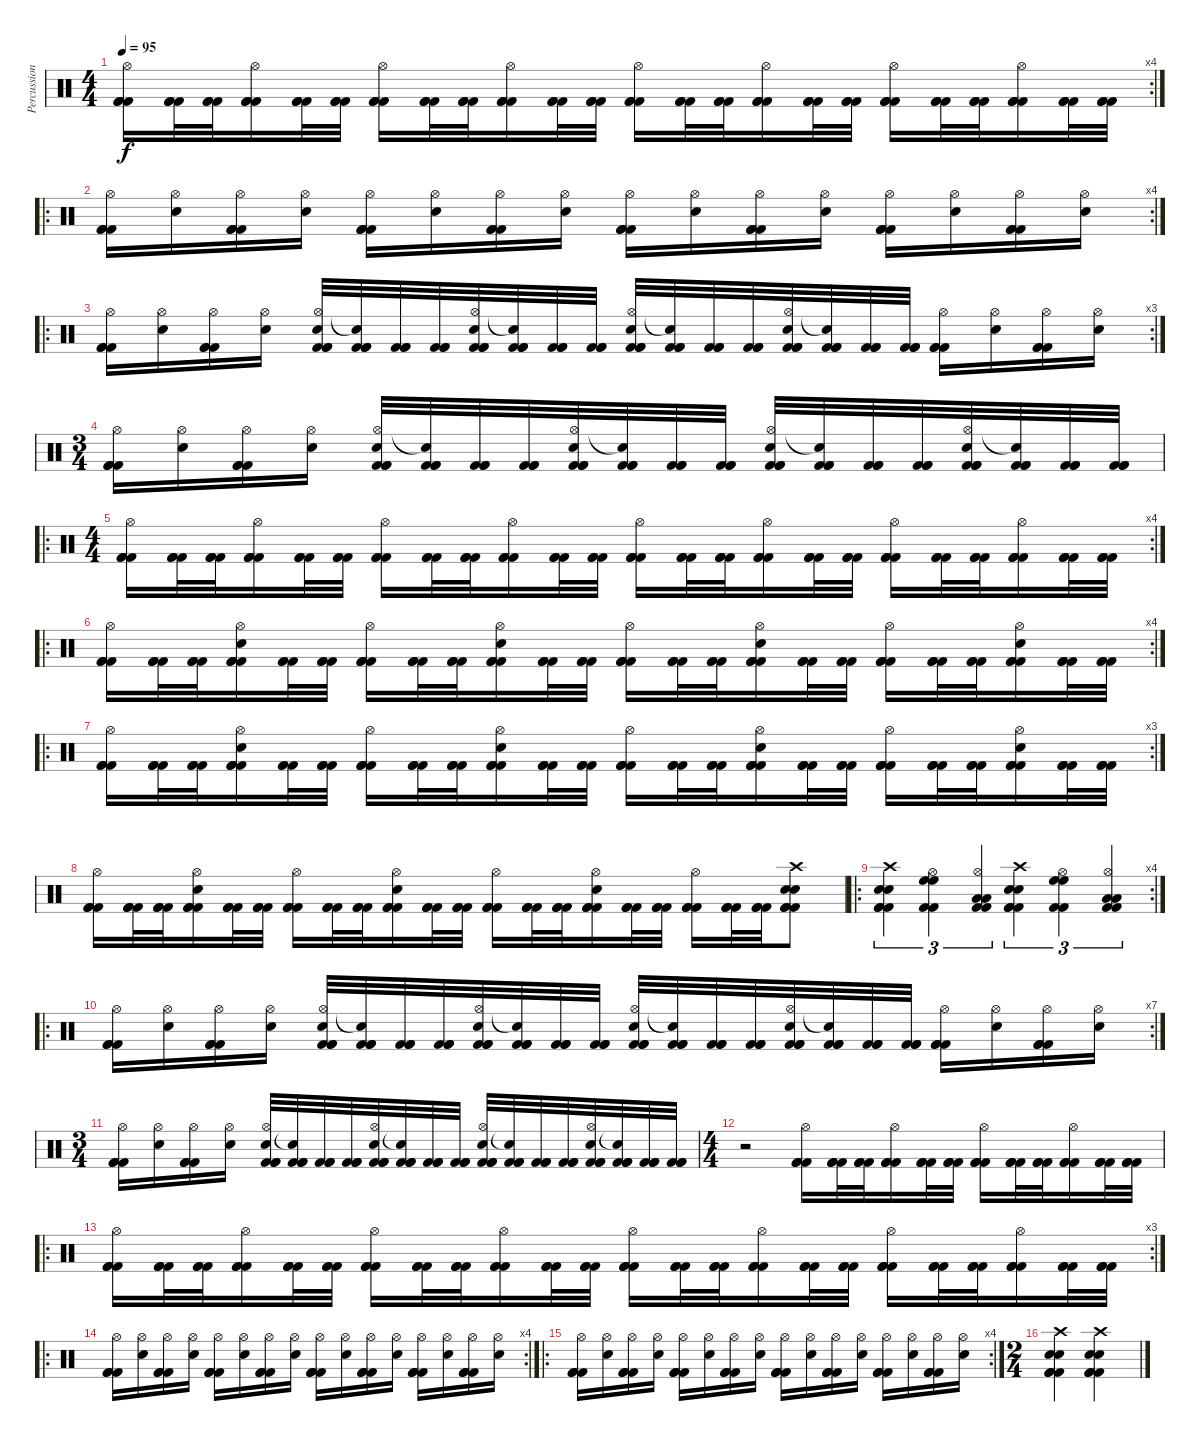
\track ("Percussion" "Percussion") {instrument percussion}
\staff {score}
\articulation defaults
\rc 4
\ts (4 4)
\tempo 95
\clef neutral
\ks c
("Kick (hit) 2" "Kick (hit) 2" "Kick (hit) 2" "Hi-Hat (open)").16{dy f} ("Kick (hit) 2" "Kick (hit) 2" "Kick (hit) 2").32 ("Kick (hit) 2" "Kick (hit) 2" "Kick (hit) 2").32 ("Kick (hit) 2" "Kick (hit) 2" "Kick (hit) 2" "Hi-Hat (open)").16 ("Kick (hit) 2" "Kick (hit) 2" "Kick (hit) 2").32 ("Kick (hit) 2" "Kick (hit) 2" "Kick (hit) 2").32 ("Kick (hit) 2" "Kick (hit) 2" "Kick (hit) 2" "Hi-Hat (open)").16 ("Kick (hit) 2" "Kick (hit) 2" "Kick (hit) 2").32 ("Kick (hit) 2" "Kick (hit) 2" "Kick (hit) 2").32 ("Kick (hit) 2" "Kick (hit) 2" "Kick (hit) 2" "Hi-Hat (open)").16 ("Kick (hit) 2" "Kick (hit) 2" "Kick (hit) 2").32 ("Kick (hit) 2" "Kick (hit) 2" "Kick (hit) 2").32 ("Kick (hit) 2" "Kick (hit) 2" "Kick (hit) 2" "Hi-Hat (open)").16 ("Kick (hit) 2" "Kick (hit) 2" "Kick (hit) 2").32 ("Kick (hit) 2" "Kick (hit) 2" "Kick (hit) 2").32 ("Kick (hit) 2" "Kick (hit) 2" "Kick (hit) 2" "Hi-Hat (open)").16 ("Kick (hit) 2" "Kick (hit) 2" "Kick (hit) 2").32 ("Kick (hit) 2" "Kick (hit) 2" "Kick (hit) 2").32 ("Kick (hit) 2" "Kick (hit) 2" "Kick (hit) 2" "Hi-Hat (open)").16 ("Kick (hit) 2" "Kick (hit) 2" "Kick (hit) 2").32 ("Kick (hit) 2" "Kick (hit) 2" "Kick (hit) 2").32 ("Kick (hit) 2" "Kick (hit) 2" "Kick (hit) 2" "Hi-Hat (open)").16 ("Kick (hit) 2" "Kick (hit) 2" "Kick (hit) 2").32 ("Kick (hit) 2" "Kick (hit) 2" "Kick (hit) 2").32 |
\ro
\rc 4
("Hi-Hat (open)" "Kick (hit) 2" "Kick (hit) 2" "Kick (hit) 2").16 ("Hi-Hat (open)" "Snare (hit) 2").16 ("Hi-Hat (open)" "Kick (hit) 2" "Kick (hit) 2" "Kick (hit) 2").16 ("Hi-Hat (open)" "Snare (hit) 2").16 ("Hi-Hat (open)" "Kick (hit) 2" "Kick (hit) 2" "Kick (hit) 2").16 ("Hi-Hat (open)" "Snare (hit) 2").16 ("Hi-Hat (open)" "Kick (hit) 2" "Kick (hit) 2" "Kick (hit) 2").16 ("Hi-Hat (open)" "Snare (hit) 2").16 ("Hi-Hat (open)" "Kick (hit) 2" "Kick (hit) 2" "Kick (hit) 2").16 ("Hi-Hat (open)" "Snare (hit) 2").16 ("Hi-Hat (open)" "Kick (hit) 2" "Kick (hit) 2" "Kick (hit) 2").16 ("Hi-Hat (open)" "Snare (hit) 2").16 ("Hi-Hat (open)" "Kick (hit) 2" "Kick (hit) 2" "Kick (hit) 2").16 ("Hi-Hat (open)" "Snare (hit) 2").16 ("Hi-Hat (open)" "Kick (hit) 2" "Kick (hit) 2" "Kick (hit) 2").16 ("Hi-Hat (open)" "Snare (hit) 2").16 |
\ro
\rc 3
("Hi-Hat (open)" "Kick (hit) 2" "Kick (hit) 2" "Kick (hit) 2").16 ("Hi-Hat (open)" "Snare (hit) 2").16 ("Hi-Hat (open)" "Kick (hit) 2" "Kick (hit) 2" "Kick (hit) 2").16 ("Hi-Hat (open)" "Snare (hit) 2").16 ("Kick (hit) 2" "Kick (hit) 2" "Kick (hit) 2" "Hi-Hat (open)" "Snare (hit) 2").32 ("Kick (hit) 2" "Kick (hit) 2" "Kick (hit) 2" "Snare (hit)"{t}).32 ("Kick (hit) 2" "Kick (hit) 2" "Kick (hit) 2").32 ("Kick (hit) 2" "Kick (hit) 2" "Kick (hit) 2").32 ("Kick (hit) 2" "Kick (hit) 2" "Kick (hit) 2" "Hi-Hat (open)" "Snare (hit) 2").32 ("Kick (hit) 2" "Kick (hit) 2" "Kick (hit) 2" "Snare (hit)"{t}).32 ("Kick (hit) 2" "Kick (hit) 2" "Kick (hit) 2").32 ("Kick (hit) 2" "Kick (hit) 2" "Kick (hit) 2").32 ("Kick (hit) 2" "Kick (hit) 2" "Kick (hit) 2" "Hi-Hat (open)" "Snare (hit) 2").32 ("Kick (hit) 2" "Kick (hit) 2" "Kick (hit) 2" "Snare (hit)"{t}).32 ("Kick (hit) 2" "Kick (hit) 2" "Kick (hit) 2").32 ("Kick (hit) 2" "Kick (hit) 2" "Kick (hit) 2").32 ("Kick (hit) 2" "Kick (hit) 2" "Kick (hit) 2" "Hi-Hat (open)" "Snare (hit) 2").32 ("Kick (hit) 2" "Kick (hit) 2" "Kick (hit) 2" "Snare (hit)"{t}).32 ("Kick (hit) 2" "Kick (hit) 2" "Kick (hit) 2").32 ("Kick (hit) 2" "Kick (hit) 2" "Kick (hit) 2").32 ("Hi-Hat (open)" "Kick (hit) 2" "Kick (hit) 2" "Kick (hit) 2").16 ("Hi-Hat (open)" "Snare (hit) 2").16 ("Hi-Hat (open)" "Kick (hit) 2" "Kick (hit) 2" "Kick (hit) 2").16 ("Hi-Hat (open)" "Snare (hit) 2").16 |
\ts (3 4)
("Hi-Hat (open)" "Kick (hit) 2" "Kick (hit) 2" "Kick (hit) 2").16 ("Hi-Hat (open)" "Snare (hit) 2").16 ("Hi-Hat (open)" "Kick (hit) 2" "Kick (hit) 2" "Kick (hit) 2").16 ("Hi-Hat (open)" "Snare (hit) 2").16 ("Kick (hit) 2" "Kick (hit) 2" "Kick (hit) 2" "Hi-Hat (open)" "Snare (hit) 2").32 ("Kick (hit) 2" "Kick (hit) 2" "Kick (hit) 2" "Snare (hit)"{t}).32 ("Kick (hit) 2" "Kick (hit) 2" "Kick (hit) 2").32 ("Kick (hit) 2" "Kick (hit) 2" "Kick (hit) 2").32 ("Kick (hit) 2" "Kick (hit) 2" "Kick (hit) 2" "Hi-Hat (open)" "Snare (hit) 2").32 ("Kick (hit) 2" "Kick (hit) 2" "Kick (hit) 2" "Snare (hit)"{t}).32 ("Kick (hit) 2" "Kick (hit) 2" "Kick (hit) 2").32 ("Kick (hit) 2" "Kick (hit) 2" "Kick (hit) 2").32 ("Kick (hit) 2" "Kick (hit) 2" "Kick (hit) 2" "Hi-Hat (open)" "Snare (hit) 2").32 ("Kick (hit) 2" "Kick (hit) 2" "Kick (hit) 2" "Snare (hit)"{t}).32 ("Kick (hit) 2" "Kick (hit) 2" "Kick (hit) 2").32 ("Kick (hit) 2" "Kick (hit) 2" "Kick (hit) 2").32 ("Kick (hit) 2" "Kick (hit) 2" "Kick (hit) 2" "Hi-Hat (open)" "Snare (hit) 2").32 ("Kick (hit) 2" "Kick (hit) 2" "Kick (hit) 2" "Snare (hit)"{t}).32 ("Kick (hit) 2" "Kick (hit) 2" "Kick (hit) 2").32 ("Kick (hit) 2" "Kick (hit) 2" "Kick (hit) 2").32 |
\ro
\rc 4
\ts (4 4)
("Kick (hit) 2" "Kick (hit) 2" "Kick (hit) 2" "Hi-Hat (open)").16 ("Kick (hit) 2" "Kick (hit) 2" "Kick (hit) 2").32 ("Kick (hit) 2" "Kick (hit) 2" "Kick (hit) 2").32 ("Kick (hit) 2" "Kick (hit) 2" "Kick (hit) 2" "Hi-Hat (open)").16 ("Kick (hit) 2" "Kick (hit) 2" "Kick (hit) 2").32 ("Kick (hit) 2" "Kick (hit) 2" "Kick (hit) 2").32 ("Kick (hit) 2" "Kick (hit) 2" "Kick (hit) 2" "Hi-Hat (open)").16 ("Kick (hit) 2" "Kick (hit) 2" "Kick (hit) 2").32 ("Kick (hit) 2" "Kick (hit) 2" "Kick (hit) 2").32 ("Kick (hit) 2" "Kick (hit) 2" "Kick (hit) 2" "Hi-Hat (open)").16 ("Kick (hit) 2" "Kick (hit) 2" "Kick (hit) 2").32 ("Kick (hit) 2" "Kick (hit) 2" "Kick (hit) 2").32 ("Kick (hit) 2" "Kick (hit) 2" "Kick (hit) 2" "Hi-Hat (open)").16 ("Kick (hit) 2" "Kick (hit) 2" "Kick (hit) 2").32 ("Kick (hit) 2" "Kick (hit) 2" "Kick (hit) 2").32 ("Kick (hit) 2" "Kick (hit) 2" "Kick (hit) 2" "Hi-Hat (open)").16 ("Kick (hit) 2" "Kick (hit) 2" "Kick (hit) 2").32 ("Kick (hit) 2" "Kick (hit) 2" "Kick (hit) 2").32 ("Kick (hit) 2" "Kick (hit) 2" "Kick (hit) 2" "Hi-Hat (open)").16 ("Kick (hit) 2" "Kick (hit) 2" "Kick (hit) 2").32 ("Kick (hit) 2" "Kick (hit) 2" "Kick (hit) 2").32 ("Kick (hit) 2" "Kick (hit) 2" "Kick (hit) 2" "Hi-Hat (open)").16 ("Kick (hit) 2" "Kick (hit) 2" "Kick (hit) 2").32 ("Kick (hit) 2" "Kick (hit) 2" "Kick (hit) 2").32 |
\ro
\rc 4
("Kick (hit) 2" "Kick (hit) 2" "Kick (hit) 2" "Hi-Hat (open)").16 ("Kick (hit) 2" "Kick (hit) 2" "Kick (hit) 2").32 ("Kick (hit) 2" "Kick (hit) 2" "Kick (hit) 2").32 ("Kick (hit) 2" "Kick (hit) 2" "Kick (hit) 2" "Hi-Hat (open)" "Snare (hit) 2").16 ("Kick (hit) 2" "Kick (hit) 2" "Kick (hit) 2").32 ("Kick (hit) 2" "Kick (hit) 2" "Kick (hit) 2").32 ("Kick (hit) 2" "Kick (hit) 2" "Kick (hit) 2" "Hi-Hat (open)").16 ("Kick (hit) 2" "Kick (hit) 2" "Kick (hit) 2").32 ("Kick (hit) 2" "Kick (hit) 2" "Kick (hit) 2").32 ("Kick (hit) 2" "Kick (hit) 2" "Kick (hit) 2" "Hi-Hat (open)" "Snare (hit) 2").16 ("Kick (hit) 2" "Kick (hit) 2" "Kick (hit) 2").32 ("Kick (hit) 2" "Kick (hit) 2" "Kick (hit) 2").32 ("Kick (hit) 2" "Kick (hit) 2" "Kick (hit) 2" "Hi-Hat (open)").16 ("Kick (hit) 2" "Kick (hit) 2" "Kick (hit) 2").32 ("Kick (hit) 2" "Kick (hit) 2" "Kick (hit) 2").32 ("Kick (hit) 2" "Kick (hit) 2" "Kick (hit) 2" "Hi-Hat (open)" "Snare (hit) 2").16 ("Kick (hit) 2" "Kick (hit) 2" "Kick (hit) 2").32 ("Kick (hit) 2" "Kick (hit) 2" "Kick (hit) 2").32 ("Kick (hit) 2" "Kick (hit) 2" "Kick (hit) 2" "Hi-Hat (open)").16 ("Kick (hit) 2" "Kick (hit) 2" "Kick (hit) 2").32 ("Kick (hit) 2" "Kick (hit) 2" "Kick (hit) 2").32 ("Kick (hit) 2" "Kick (hit) 2" "Kick (hit) 2" "Hi-Hat (open)" "Snare (hit) 2").16 ("Kick (hit) 2" "Kick (hit) 2" "Kick (hit) 2").32 ("Kick (hit) 2" "Kick (hit) 2" "Kick (hit) 2").32 |
\ro
\rc 3
("Kick (hit) 2" "Kick (hit) 2" "Kick (hit) 2" "Hi-Hat (open)").16 ("Kick (hit) 2" "Kick (hit) 2" "Kick (hit) 2").32 ("Kick (hit) 2" "Kick (hit) 2" "Kick (hit) 2").32 ("Kick (hit) 2" "Kick (hit) 2" "Kick (hit) 2" "Hi-Hat (open)" "Snare (hit) 2").16 ("Kick (hit) 2" "Kick (hit) 2" "Kick (hit) 2").32 ("Kick (hit) 2" "Kick (hit) 2" "Kick (hit) 2").32 ("Kick (hit) 2" "Kick (hit) 2" "Kick (hit) 2" "Hi-Hat (open)").16 ("Kick (hit) 2" "Kick (hit) 2" "Kick (hit) 2").32 ("Kick (hit) 2" "Kick (hit) 2" "Kick (hit) 2").32 ("Kick (hit) 2" "Kick (hit) 2" "Kick (hit) 2" "Hi-Hat (open)" "Snare (hit) 2").16 ("Kick (hit) 2" "Kick (hit) 2" "Kick (hit) 2").32 ("Kick (hit) 2" "Kick (hit) 2" "Kick (hit) 2").32 ("Kick (hit) 2" "Kick (hit) 2" "Kick (hit) 2" "Hi-Hat (open)").16 ("Kick (hit) 2" "Kick (hit) 2" "Kick (hit) 2").32 ("Kick (hit) 2" "Kick (hit) 2" "Kick (hit) 2").32 ("Kick (hit) 2" "Kick (hit) 2" "Kick (hit) 2" "Hi-Hat (open)" "Snare (hit) 2").16 ("Kick (hit) 2" "Kick (hit) 2" "Kick (hit) 2").32 ("Kick (hit) 2" "Kick (hit) 2" "Kick (hit) 2").32 ("Kick (hit) 2" "Kick (hit) 2" "Kick (hit) 2" "Hi-Hat (open)").16 ("Kick (hit) 2" "Kick (hit) 2" "Kick (hit) 2").32 ("Kick (hit) 2" "Kick (hit) 2" "Kick (hit) 2").32 ("Kick (hit) 2" "Kick (hit) 2" "Kick (hit) 2" "Hi-Hat (open)" "Snare (hit) 2").16 ("Kick (hit) 2" "Kick (hit) 2" "Kick (hit) 2").32 ("Kick (hit) 2" "Kick (hit) 2" "Kick (hit) 2").32 |
("Kick (hit) 2" "Kick (hit) 2" "Kick (hit) 2" "Hi-Hat (open)").16 ("Kick (hit) 2" "Kick (hit) 2" "Kick (hit) 2").32 ("Kick (hit) 2" "Kick (hit) 2" "Kick (hit) 2").32 ("Kick (hit) 2" "Kick (hit) 2" "Kick (hit) 2" "Hi-Hat (open)" "Snare (hit) 2").16 ("Kick (hit) 2" "Kick (hit) 2" "Kick (hit) 2").32 ("Kick (hit) 2" "Kick (hit) 2" "Kick (hit) 2").32 ("Kick (hit) 2" "Kick (hit) 2" "Kick (hit) 2" "Hi-Hat (open)").16 ("Kick (hit) 2" "Kick (hit) 2" "Kick (hit) 2").32 ("Kick (hit) 2" "Kick (hit) 2" "Kick (hit) 2").32 ("Kick (hit) 2" "Kick (hit) 2" "Kick (hit) 2" "Hi-Hat (open)" "Snare (hit) 2").16 ("Kick (hit) 2" "Kick (hit) 2" "Kick (hit) 2").32 ("Kick (hit) 2" "Kick (hit) 2" "Kick (hit) 2").32 ("Kick (hit) 2" "Kick (hit) 2" "Kick (hit) 2" "Hi-Hat (open)").16 ("Kick (hit) 2" "Kick (hit) 2" "Kick (hit) 2").32 ("Kick (hit) 2" "Kick (hit) 2" "Kick (hit) 2").32 ("Kick (hit) 2" "Kick (hit) 2" "Kick (hit) 2" "Hi-Hat (open)" "Snare (hit) 2").16 ("Kick (hit) 2" "Kick (hit) 2" "Kick (hit) 2").32 ("Kick (hit) 2" "Kick (hit) 2" "Kick (hit) 2").32 ("Kick (hit) 2" "Kick (hit) 2" "Kick (hit) 2" "Hi-Hat (open)").16 ("Kick (hit) 2" "Kick (hit) 2" "Kick (hit) 2").32 ("Kick (hit) 2" "Kick (hit) 2" "Kick (hit) 2").32 ("Kick (hit) 2" "Kick (hit) 2" "Kick (hit) 2" "Crash high (hit)" "Snare (hit) 2" "Snare (hit) 2").8 |
\ro
\rc 4
("Snare (hit) 2" "Snare (hit) 2" "Kick (hit) 2" "Kick (hit) 2" "Crash high (hit)" "Kick (hit) 2").4{tu (3 2)} ("High Floor Tom (hit)" "High Floor Tom (hit)" "Kick (hit) 2" "Kick (hit) 2" "Hi-Hat (open)").4{tu (3 2)} ("Low Tom (hit)" "Low Tom (hit)" "Kick (hit) 2" "Kick (hit) 2" "Hi-Hat (open)").4{tu (3 2)} ("Snare (hit) 2" "Snare (hit) 2" "Kick (hit) 2" "Kick (hit) 2" "Crash high (hit)" "Kick (hit) 2").4{tu (3 2)} ("High Floor Tom (hit)" "High Floor Tom (hit)" "Kick (hit) 2" "Kick (hit) 2" "Hi-Hat (open)").4{tu (3 2)} ("Low Tom (hit)" "Low Tom (hit)" "Kick (hit) 2" "Kick (hit) 2" "Hi-Hat (open)").4{tu (3 2)} |
\ro
\rc 7
("Hi-Hat (open)" "Kick (hit) 2" "Kick (hit) 2" "Kick (hit) 2").16 ("Hi-Hat (open)" "Snare (hit) 2").16 ("Hi-Hat (open)" "Kick (hit) 2" "Kick (hit) 2" "Kick (hit) 2").16 ("Hi-Hat (open)" "Snare (hit) 2").16 ("Kick (hit) 2" "Kick (hit) 2" "Kick (hit) 2" "Hi-Hat (open)" "Snare (hit) 2").32 ("Kick (hit) 2" "Kick (hit) 2" "Kick (hit) 2" "Snare (hit)"{t}).32 ("Kick (hit) 2" "Kick (hit) 2" "Kick (hit) 2").32 ("Kick (hit) 2" "Kick (hit) 2" "Kick (hit) 2").32 ("Kick (hit) 2" "Kick (hit) 2" "Kick (hit) 2" "Hi-Hat (open)" "Snare (hit) 2").32 ("Kick (hit) 2" "Kick (hit) 2" "Kick (hit) 2" "Snare (hit)"{t}).32 ("Kick (hit) 2" "Kick (hit) 2" "Kick (hit) 2").32 ("Kick (hit) 2" "Kick (hit) 2" "Kick (hit) 2").32 ("Kick (hit) 2" "Kick (hit) 2" "Kick (hit) 2" "Hi-Hat (open)" "Snare (hit) 2").32 ("Kick (hit) 2" "Kick (hit) 2" "Kick (hit) 2" "Snare (hit)"{t}).32 ("Kick (hit) 2" "Kick (hit) 2" "Kick (hit) 2").32 ("Kick (hit) 2" "Kick (hit) 2" "Kick (hit) 2").32 ("Kick (hit) 2" "Kick (hit) 2" "Kick (hit) 2" "Hi-Hat (open)" "Snare (hit) 2").32 ("Kick (hit) 2" "Kick (hit) 2" "Kick (hit) 2" "Snare (hit)"{t}).32 ("Kick (hit) 2" "Kick (hit) 2" "Kick (hit) 2").32 ("Kick (hit) 2" "Kick (hit) 2" "Kick (hit) 2").32 ("Hi-Hat (open)" "Kick (hit) 2" "Kick (hit) 2" "Kick (hit) 2").16 ("Hi-Hat (open)" "Snare (hit) 2").16 ("Hi-Hat (open)" "Kick (hit) 2" "Kick (hit) 2" "Kick (hit) 2").16 ("Hi-Hat (open)" "Snare (hit) 2").16 |
\ts (3 4)
("Hi-Hat (open)" "Kick (hit) 2" "Kick (hit) 2" "Kick (hit) 2").16 ("Hi-Hat (open)" "Snare (hit) 2").16 ("Hi-Hat (open)" "Kick (hit) 2" "Kick (hit) 2" "Kick (hit) 2").16 ("Hi-Hat (open)" "Snare (hit) 2").16 ("Kick (hit) 2" "Kick (hit) 2" "Kick (hit) 2" "Hi-Hat (open)" "Snare (hit) 2").32 ("Kick (hit) 2" "Kick (hit) 2" "Kick (hit) 2" "Snare (hit)"{t}).32 ("Kick (hit) 2" "Kick (hit) 2" "Kick (hit) 2").32 ("Kick (hit) 2" "Kick (hit) 2" "Kick (hit) 2").32 ("Kick (hit) 2" "Kick (hit) 2" "Kick (hit) 2" "Hi-Hat (open)" "Snare (hit) 2").32 ("Kick (hit) 2" "Kick (hit) 2" "Kick (hit) 2" "Snare (hit)"{t}).32 ("Kick (hit) 2" "Kick (hit) 2" "Kick (hit) 2").32 ("Kick (hit) 2" "Kick (hit) 2" "Kick (hit) 2").32 ("Kick (hit) 2" "Kick (hit) 2" "Kick (hit) 2" "Hi-Hat (open)" "Snare (hit) 2").32 ("Kick (hit) 2" "Kick (hit) 2" "Kick (hit) 2" "Snare (hit)"{t}).32 ("Kick (hit) 2" "Kick (hit) 2" "Kick (hit) 2").32 ("Kick (hit) 2" "Kick (hit) 2" "Kick (hit) 2").32 ("Kick (hit) 2" "Kick (hit) 2" "Kick (hit) 2" "Hi-Hat (open)" "Snare (hit) 2").32 ("Kick (hit) 2" "Kick (hit) 2" "Kick (hit) 2" "Snare (hit)"{t}).32 ("Kick (hit) 2" "Kick (hit) 2" "Kick (hit) 2").32 ("Kick (hit) 2" "Kick (hit) 2" "Kick (hit) 2").32 |
\ts (4 4)
r.2 ("Kick (hit) 2" "Kick (hit) 2" "Kick (hit) 2" "Hi-Hat (open)").16 ("Kick (hit) 2" "Kick (hit) 2" "Kick (hit) 2").32 ("Kick (hit) 2" "Kick (hit) 2" "Kick (hit) 2").32 ("Kick (hit) 2" "Kick (hit) 2" "Kick (hit) 2" "Hi-Hat (open)").16 ("Kick (hit) 2" "Kick (hit) 2" "Kick (hit) 2").32 ("Kick (hit) 2" "Kick (hit) 2" "Kick (hit) 2").32 ("Kick (hit) 2" "Kick (hit) 2" "Kick (hit) 2" "Hi-Hat (open)").16 ("Kick (hit) 2" "Kick (hit) 2" "Kick (hit) 2").32 ("Kick (hit) 2" "Kick (hit) 2" "Kick (hit) 2").32 ("Kick (hit) 2" "Kick (hit) 2" "Kick (hit) 2" "Hi-Hat (open)").16 ("Kick (hit) 2" "Kick (hit) 2" "Kick (hit) 2").32 ("Kick (hit) 2" "Kick (hit) 2" "Kick (hit) 2").32 |
\ro
\rc 3
("Kick (hit) 2" "Kick (hit) 2" "Kick (hit) 2" "Hi-Hat (open)").16 ("Kick (hit) 2" "Kick (hit) 2" "Kick (hit) 2").32 ("Kick (hit) 2" "Kick (hit) 2" "Kick (hit) 2").32 ("Kick (hit) 2" "Kick (hit) 2" "Kick (hit) 2" "Hi-Hat (open)").16 ("Kick (hit) 2" "Kick (hit) 2" "Kick (hit) 2").32 ("Kick (hit) 2" "Kick (hit) 2" "Kick (hit) 2").32 ("Kick (hit) 2" "Kick (hit) 2" "Kick (hit) 2" "Hi-Hat (open)").16 ("Kick (hit) 2" "Kick (hit) 2" "Kick (hit) 2").32 ("Kick (hit) 2" "Kick (hit) 2" "Kick (hit) 2").32 ("Kick (hit) 2" "Kick (hit) 2" "Kick (hit) 2" "Hi-Hat (open)").16 ("Kick (hit) 2" "Kick (hit) 2" "Kick (hit) 2").32 ("Kick (hit) 2" "Kick (hit) 2" "Kick (hit) 2").32 ("Kick (hit) 2" "Kick (hit) 2" "Kick (hit) 2" "Hi-Hat (open)").16 ("Kick (hit) 2" "Kick (hit) 2" "Kick (hit) 2").32 ("Kick (hit) 2" "Kick (hit) 2" "Kick (hit) 2").32 ("Kick (hit) 2" "Kick (hit) 2" "Kick (hit) 2" "Hi-Hat (open)").16 ("Kick (hit) 2" "Kick (hit) 2" "Kick (hit) 2").32 ("Kick (hit) 2" "Kick (hit) 2" "Kick (hit) 2").32 ("Kick (hit) 2" "Kick (hit) 2" "Kick (hit) 2" "Hi-Hat (open)").16 ("Kick (hit) 2" "Kick (hit) 2" "Kick (hit) 2").32 ("Kick (hit) 2" "Kick (hit) 2" "Kick (hit) 2").32 ("Kick (hit) 2" "Kick (hit) 2" "Kick (hit) 2" "Hi-Hat (open)").16 ("Kick (hit) 2" "Kick (hit) 2" "Kick (hit) 2").32 ("Kick (hit) 2" "Kick (hit) 2" "Kick (hit) 2").32 |
\ro
\rc 4
("Hi-Hat (open)" "Kick (hit) 2" "Kick (hit) 2" "Kick (hit) 2").16 ("Hi-Hat (open)" "Snare (hit) 2").16 ("Hi-Hat (open)" "Kick (hit) 2" "Kick (hit) 2" "Kick (hit) 2").16 ("Hi-Hat (open)" "Snare (hit) 2").16 ("Hi-Hat (open)" "Kick (hit) 2" "Kick (hit) 2" "Kick (hit) 2").16 ("Hi-Hat (open)" "Snare (hit) 2").16 ("Hi-Hat (open)" "Kick (hit) 2" "Kick (hit) 2" "Kick (hit) 2").16 ("Hi-Hat (open)" "Snare (hit) 2").16 ("Hi-Hat (open)" "Kick (hit) 2" "Kick (hit) 2" "Kick (hit) 2").16 ("Hi-Hat (open)" "Snare (hit) 2").16 ("Hi-Hat (open)" "Kick (hit) 2" "Kick (hit) 2" "Kick (hit) 2").16 ("Hi-Hat (open)" "Snare (hit) 2").16 ("Hi-Hat (open)" "Kick (hit) 2" "Kick (hit) 2" "Kick (hit) 2").16 ("Hi-Hat (open)" "Snare (hit) 2").16 ("Hi-Hat (open)" "Kick (hit) 2" "Kick (hit) 2" "Kick (hit) 2").16 ("Hi-Hat (open)" "Snare (hit) 2").16 |
\ro
\rc 4
("Hi-Hat (open)" "Kick (hit) 2" "Kick (hit) 2" "Kick (hit) 2").16 ("Hi-Hat (open)" "Snare (hit) 2").16 ("Hi-Hat (open)" "Kick (hit) 2" "Kick (hit) 2" "Kick (hit) 2").16 ("Hi-Hat (open)" "Snare (hit) 2").16 ("Hi-Hat (open)" "Kick (hit) 2" "Kick (hit) 2" "Kick (hit) 2").16 ("Hi-Hat (open)" "Snare (hit) 2").16 ("Hi-Hat (open)" "Kick (hit) 2" "Kick (hit) 2" "Kick (hit) 2").16 ("Hi-Hat (open)" "Snare (hit) 2").16 ("Hi-Hat (open)" "Kick (hit) 2" "Kick (hit) 2" "Kick (hit) 2").16 ("Hi-Hat (open)" "Snare (hit) 2").16 ("Hi-Hat (open)" "Kick (hit) 2" "Kick (hit) 2" "Kick (hit) 2").16 ("Hi-Hat (open)" "Snare (hit) 2").16 ("Hi-Hat (open)" "Kick (hit) 2" "Kick (hit) 2" "Kick (hit) 2").16 ("Hi-Hat (open)" "Snare (hit) 2").16 ("Hi-Hat (open)" "Kick (hit) 2" "Kick (hit) 2" "Kick (hit) 2").16 ("Hi-Hat (open)" "Snare (hit) 2").16 |
\ts (2 4)
("Crash high (hit)" "Snare (hit) 2" "Snare (hit) 2" "Kick (hit) 2" "Kick (hit) 2" "Kick (hit) 2").4 ("Crash high (hit)" "Snare (hit) 2" "Snare (hit) 2" "Kick (hit) 2" "Kick (hit) 2" "Kick (hit) 2").4
